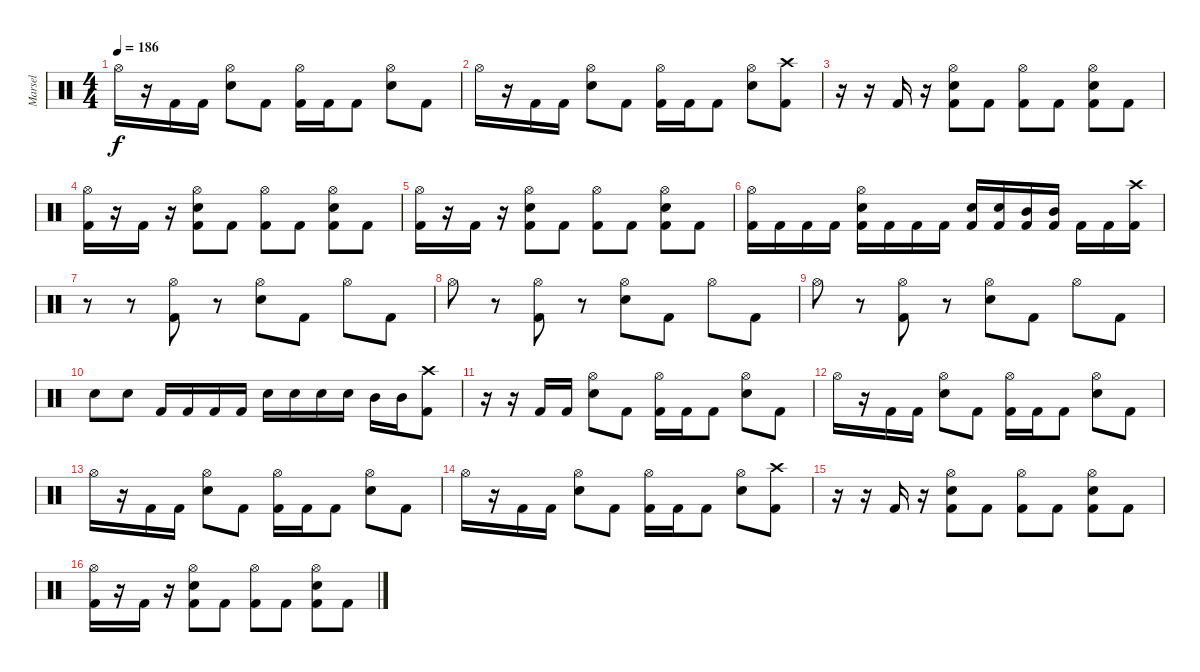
\track ("Marsel" "Marsel") {mute instrument percussion}
\staff {score}
\articulation defaults
\ts (4 4)
\tempo 186
\clef neutral
\ks c "Hi-Hat (open)".16{dy f}
r.16 "Kick (hit) 2".16 "Kick (hit) 2".16 ("Hi-Hat (open)" "Snare (hit) 2").8 "Kick (hit) 2".8 ("Hi-Hat (open)" "Kick (hit) 2").16 "Kick (hit) 2".16 "Kick (hit) 2".8 ("Hi-Hat (open)" "Snare (hit) 2").8 "Kick (hit) 2".8 |
"Hi-Hat (open)".16 r.16 "Kick (hit) 2".16 "Kick (hit) 2".16 ("Hi-Hat (open)" "Snare (hit) 2").8 "Kick (hit) 2".8 ("Hi-Hat (open)" "Kick (hit) 2").16 "Kick (hit) 2".16 "Kick (hit) 2".8 ("Hi-Hat (open)" "Snare (hit) 2").8 ("Crash high (hit)" "Kick (hit) 2").8 |
r.16 r.16 "Kick (hit) 2".16 r.16 ("Hi-Hat (open)" "Snare (hit) 2" "Kick (hit) 2").8 "Kick (hit) 2".8 ("Hi-Hat (open)" "Kick (hit) 2").8 "Kick (hit) 2".8 ("Hi-Hat (open)" "Snare (hit) 2" "Kick (hit) 2").8 "Kick (hit) 2".8 |
("Hi-Hat (open)" "Kick (hit) 2").16 r.16 "Kick (hit) 2".16 r.16 ("Hi-Hat (open)" "Snare (hit) 2" "Kick (hit) 2").8 "Kick (hit) 2".8 ("Hi-Hat (open)" "Kick (hit) 2").8 "Kick (hit) 2".8 ("Hi-Hat (open)" "Snare (hit) 2" "Kick (hit) 2").8 "Kick (hit) 2".8 |
("Hi-Hat (open)" "Kick (hit) 2").16 r.16 "Kick (hit) 2".16 r.16 ("Hi-Hat (open)" "Snare (hit) 2" "Kick (hit) 2").8 "Kick (hit) 2".8 ("Hi-Hat (open)" "Kick (hit) 2").8 "Kick (hit) 2".8 ("Hi-Hat (open)" "Snare (hit) 2" "Kick (hit) 2").8 "Kick (hit) 2".8 |
("Hi-Hat (open)" "Kick (hit) 2").16 "Kick (hit) 2".16 "Kick (hit) 2".16 "Kick (hit) 2".16 ("Hi-Hat (open)" "Snare (hit) 2" "Kick (hit) 2").16 "Kick (hit) 2".16 "Kick (hit) 2".16 "Kick (hit) 2".16 ("Snare (hit) 2" "Kick (hit) 2").16 ("Snare (hit) 2" "Kick (hit) 2").16 ("Mid Tom (hit)" "Kick (hit) 2").16 ("Mid Tom (hit)" "Kick (hit) 2").16 "Kick (hit) 2".16 "Kick (hit) 2".16 ("Crash high (hit)" "Kick (hit) 2").16 |
r.8 r.8 ("Hi-Hat (open)" "Kick (hit) 2").8 r.8 ("Hi-Hat (open)" "Snare (hit) 2").8 "Kick (hit) 2".8 "Hi-Hat (open)".8 "Kick (hit) 2".8 |
"Hi-Hat (open)".8 r.8 ("Hi-Hat (open)" "Kick (hit) 2").8 r.8 ("Hi-Hat (open)" "Snare (hit) 2").8 "Kick (hit) 2".8 "Hi-Hat (open)".8 "Kick (hit) 2".8 |
"Hi-Hat (open)".8 r.8 ("Hi-Hat (open)" "Kick (hit) 2").8 r.8 ("Hi-Hat (open)" "Snare (hit) 2").8 "Kick (hit) 2".8 "Hi-Hat (open)".8 "Kick (hit) 2".8 |
"Snare (hit) 2".8 "Snare (hit) 2".8 "Kick (hit) 2".16 "Kick (hit) 2".16 "Kick (hit) 2".16 "Kick (hit) 2".16 "Snare (hit) 2".16 "Snare (hit) 2".16 "Snare (hit) 2".16 "Snare (hit) 2".16 "Mid Tom (hit)".16 "Mid Tom (hit)".16 ("Crash high (hit)" "Kick (hit) 2").8 |
r.16 r.16 "Kick (hit) 2".16 "Kick (hit) 2".16 ("Hi-Hat (open)" "Snare (hit) 2").8 "Kick (hit) 2".8 ("Hi-Hat (open)" "Kick (hit) 2").16 "Kick (hit) 2".16 "Kick (hit) 2".8 ("Hi-Hat (open)" "Snare (hit) 2").8 "Kick (hit) 2".8 |
"Hi-Hat (open)".16 r.16 "Kick (hit) 2".16 "Kick (hit) 2".16 ("Hi-Hat (open)" "Snare (hit) 2").8 "Kick (hit) 2".8 ("Hi-Hat (open)" "Kick (hit) 2").16 "Kick (hit) 2".16 "Kick (hit) 2".8 ("Hi-Hat (open)" "Snare (hit) 2").8 "Kick (hit) 2".8 |
"Hi-Hat (open)".16 r.16 "Kick (hit) 2".16 "Kick (hit) 2".16 ("Hi-Hat (open)" "Snare (hit) 2").8 "Kick (hit) 2".8 ("Hi-Hat (open)" "Kick (hit) 2").16 "Kick (hit) 2".16 "Kick (hit) 2".8 ("Hi-Hat (open)" "Snare (hit) 2").8 "Kick (hit) 2".8 |
"Hi-Hat (open)".16 r.16 "Kick (hit) 2".16 "Kick (hit) 2".16 ("Hi-Hat (open)" "Snare (hit) 2").8 "Kick (hit) 2".8 ("Hi-Hat (open)" "Kick (hit) 2").16 "Kick (hit) 2".16 "Kick (hit) 2".8 ("Hi-Hat (open)" "Snare (hit) 2").8 ("Crash high (hit)" "Kick (hit) 2").8 |
r.16 r.16 "Kick (hit) 2".16 r.16 ("Hi-Hat (open)" "Snare (hit) 2" "Kick (hit) 2").8 "Kick (hit) 2".8 ("Hi-Hat (open)" "Kick (hit) 2").8 "Kick (hit) 2".8 ("Hi-Hat (open)" "Snare (hit) 2" "Kick (hit) 2").8 "Kick (hit) 2".8 |
("Hi-Hat (open)" "Kick (hit) 2").16 r.16 "Kick (hit) 2".16 r.16 ("Hi-Hat (open)" "Snare (hit) 2" "Kick (hit) 2").8 "Kick (hit) 2".8 ("Hi-Hat (open)" "Kick (hit) 2").8 "Kick (hit) 2".8 ("Hi-Hat (open)" "Snare (hit) 2" "Kick (hit) 2").8 "Kick (hit) 2".8
